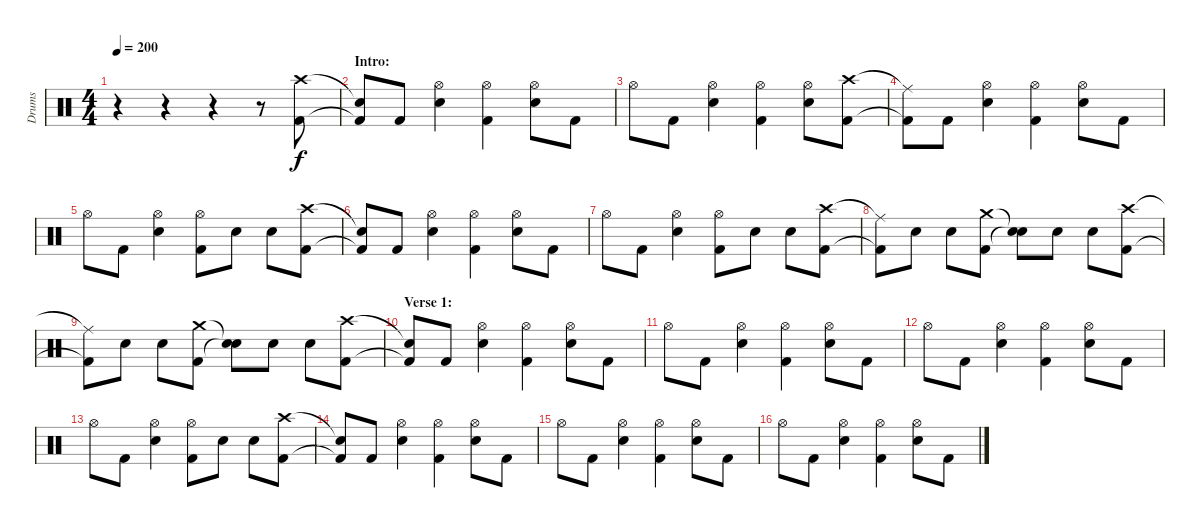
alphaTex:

\track ("Drums" "Drums") {instrument percussion}
\staff {score}
\articulation defaults
\ts (4 4)
\tempo 200
\clef neutral
\ks c
r.4{dy f} r.4 r.4 r.8 ("Crash high (hit)" "Kick (hit) 2").8 |
\section ("" "Intro:")
("Snare (hit)"{t} "Kick (hit) 2"{t}).8 "Kick (hit) 2".8 ("Hi-Hat (open)" "Electric Snare (hit)").4 ("Hi-Hat (open)" "Kick (hit) 2").4 ("Hi-Hat (open)" "Electric Snare (hit)").8 "Kick (hit) 2".8 |
"Hi-Hat (open)".8 "Kick (hit) 2".8 ("Hi-Hat (open)" "Electric Snare (hit)").4 ("Hi-Hat (open)" "Kick (hit) 2").4 ("Hi-Hat (open)" "Electric Snare (hit)").8 ("Crash high (hit)" "Kick (hit) 2").8 |
("Ride (middle)"{t} "Kick (hit) 2"{t}).8 "Kick (hit) 2".8 ("Hi-Hat (open)" "Electric Snare (hit)").4 ("Hi-Hat (open)" "Kick (hit) 2").4 ("Hi-Hat (open)" "Electric Snare (hit)").8 "Kick (hit) 2".8 |
"Hi-Hat (open)".8 "Kick (hit) 2".8 ("Hi-Hat (open)" "Electric Snare (hit)").4 ("Hi-Hat (open)" "Kick (hit) 2").8 "Electric Snare (hit)".8 "Electric Snare (hit)".8 ("Crash high (hit)" "Kick (hit) 2").8 |
("Snare (hit)"{t} "Kick (hit) 2"{t}).8 "Kick (hit) 2".8 ("Hi-Hat (open)" "Electric Snare (hit)").4 ("Hi-Hat (open)" "Kick (hit) 2").4 ("Hi-Hat (open)" "Electric Snare (hit)").8 "Kick (hit) 2".8 |
"Hi-Hat (open)".8 "Kick (hit) 2".8 ("Hi-Hat (open)" "Electric Snare (hit)").4 ("Hi-Hat (open)" "Kick (hit) 2").8 "Electric Snare (hit)".8 "Electric Snare (hit)".8 ("Crash high (hit)" "Kick (hit) 2").8 |
("Ride (middle)"{t} "Kick (hit) 2"{t}).8 "Electric Snare (hit)".8 "Electric Snare (hit)".8 ("Crash medium (hit)" "Kick (hit) 2").8 ("Snare (hit)"{t} "Snare (hit)"{t}).8 "Electric Snare (hit)".8 "Electric Snare (hit)".8 ("Crash high (hit)" "Kick (hit) 2").8 |
("Ride (middle)"{t} "Kick (hit) 2"{t}).8 "Electric Snare (hit)".8 "Electric Snare (hit)".8 ("Crash medium (hit)" "Kick (hit) 2").8 ("Snare (hit)"{t} "Snare (hit)"{t}).8 "Electric Snare (hit)".8 "Electric Snare (hit)".8 ("Crash high (hit)" "Kick (hit) 2").8 |
\section ("" "Verse 1:")
("Snare (hit)"{t} "Kick (hit) 2"{t}).8 "Kick (hit) 2".8 ("Hi-Hat (open)" "Electric Snare (hit)").4 ("Hi-Hat (open)" "Kick (hit) 2").4 ("Hi-Hat (open)" "Electric Snare (hit)").8 "Kick (hit) 2".8 |
"Hi-Hat (open)".8 "Kick (hit) 2".8 ("Hi-Hat (open)" "Electric Snare (hit)").4 ("Hi-Hat (open)" "Kick (hit) 2").4 ("Hi-Hat (open)" "Electric Snare (hit)").8 "Kick (hit) 2".8 |
"Hi-Hat (open)".8 "Kick (hit) 2".8 ("Hi-Hat (open)" "Electric Snare (hit)").4 ("Hi-Hat (open)" "Kick (hit) 2").4 ("Hi-Hat (open)" "Electric Snare (hit)").8 "Kick (hit) 2".8 |
"Hi-Hat (open)".8 "Kick (hit) 2".8 ("Hi-Hat (open)" "Electric Snare (hit)").4 ("Hi-Hat (open)" "Kick (hit) 2").8 "Electric Snare (hit)".8 "Electric Snare (hit)".8 ("Crash high (hit)" "Kick (hit) 2").8 |
("Snare (hit)"{t} "Kick (hit) 2"{t}).8 "Kick (hit) 2".8 ("Hi-Hat (open)" "Electric Snare (hit)").4 ("Hi-Hat (open)" "Kick (hit) 2").4 ("Hi-Hat (open)" "Electric Snare (hit)").8 "Kick (hit) 2".8 |
"Hi-Hat (open)".8 "Kick (hit) 2".8 ("Hi-Hat (open)" "Electric Snare (hit)").4 ("Hi-Hat (open)" "Kick (hit) 2").4 ("Hi-Hat (open)" "Electric Snare (hit)").8 "Kick (hit) 2".8 |
"Hi-Hat (open)".8 "Kick (hit) 2".8 ("Hi-Hat (open)" "Electric Snare (hit)").4 ("Hi-Hat (open)" "Kick (hit) 2").4 ("Hi-Hat (open)" "Electric Snare (hit)").8 "Kick (hit) 2".8
